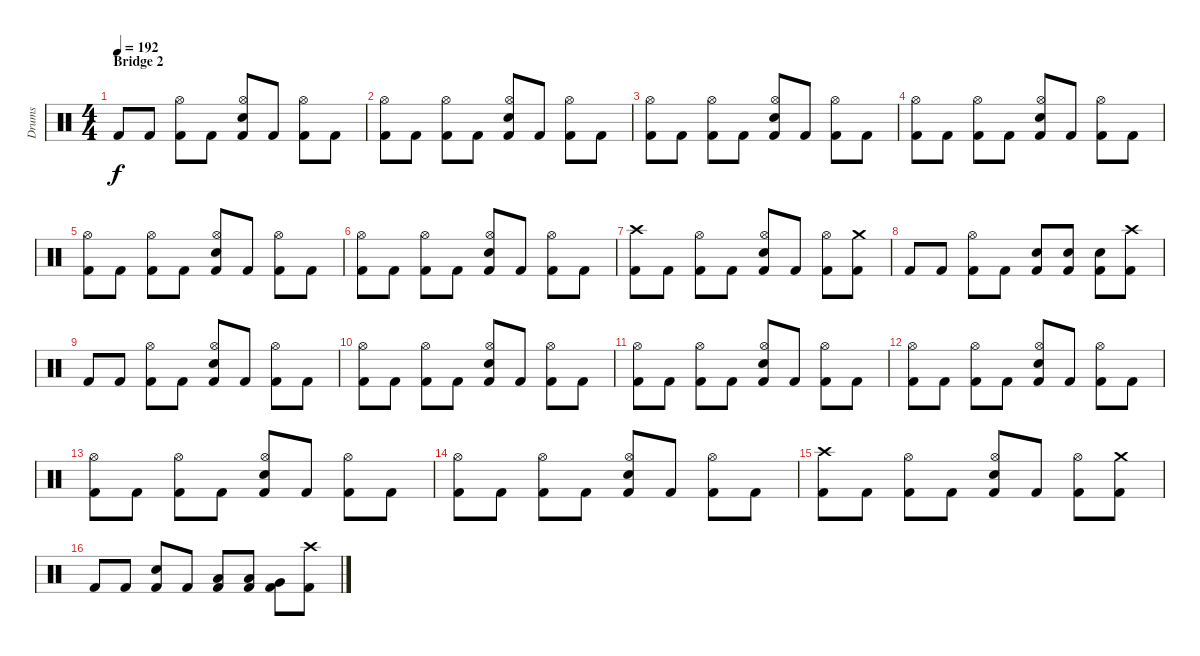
\track ("Drums" "Drums") {instrument percussion}
\staff {score}
\articulation defaults
\ts (4 4)
\section ("" "Bridge 2")
\tempo 192
\clef neutral
\ks c "Kick (hit) 2".8{dy f} "Kick (hit) 2".8
("Hi-Hat (open)" "Kick (hit) 2").8 "Kick (hit) 2".8 ("Hi-Hat (open)" "Snare (hit) 2" "Kick (hit) 2").8 "Kick (hit) 2".8 ("Hi-Hat (open)" "Kick (hit) 2").8 "Kick (hit) 2".8 |
("Hi-Hat (open)" "Kick (hit) 2").8 "Kick (hit) 2".8 ("Hi-Hat (open)" "Kick (hit) 2").8 "Kick (hit) 2".8 ("Hi-Hat (open)" "Snare (hit) 2" "Kick (hit) 2").8 "Kick (hit) 2".8 ("Hi-Hat (open)" "Kick (hit) 2").8 "Kick (hit) 2".8 |
("Hi-Hat (open)" "Kick (hit) 2").8 "Kick (hit) 2".8 ("Hi-Hat (open)" "Kick (hit) 2").8 "Kick (hit) 2".8 ("Hi-Hat (open)" "Snare (hit) 2" "Kick (hit) 2").8 "Kick (hit) 2".8 ("Hi-Hat (open)" "Kick (hit) 2").8 "Kick (hit) 2".8 |
("Hi-Hat (open)" "Kick (hit) 2").8 "Kick (hit) 2".8 ("Hi-Hat (open)" "Kick (hit) 2").8 "Kick (hit) 2".8 ("Hi-Hat (open)" "Snare (hit) 2" "Kick (hit) 2").8 "Kick (hit) 2".8 ("Hi-Hat (open)" "Kick (hit) 2").8 "Kick (hit) 2".8 |
("Hi-Hat (open)" "Kick (hit) 2").8 "Kick (hit) 2".8 ("Hi-Hat (open)" "Kick (hit) 2").8 "Kick (hit) 2".8 ("Hi-Hat (open)" "Snare (hit) 2" "Kick (hit) 2").8 "Kick (hit) 2".8 ("Hi-Hat (open)" "Kick (hit) 2").8 "Kick (hit) 2".8 |
("Hi-Hat (open)" "Kick (hit) 2").8 "Kick (hit) 2".8 ("Hi-Hat (open)" "Kick (hit) 2").8 "Kick (hit) 2".8 ("Hi-Hat (open)" "Snare (hit) 2" "Kick (hit) 2").8 "Kick (hit) 2".8 ("Hi-Hat (open)" "Kick (hit) 2").8 "Kick (hit) 2".8 |
("Crash high (hit)" "Kick (hit) 2").8 "Kick (hit) 2".8 ("Hi-Hat (open)" "Kick (hit) 2").8 "Kick (hit) 2".8 ("Hi-Hat (open)" "Snare (hit) 2" "Kick (hit) 2").8 "Kick (hit) 2".8 ("Hi-Hat (open)" "Kick (hit) 2").8 ("Crash medium (hit)" "Kick (hit) 2").8 |
"Kick (hit) 2".8 "Kick (hit) 2".8 ("Hi-Hat (open)" "Kick (hit) 2").8 "Kick (hit) 2".8 ("Snare (hit) 2" "Kick (hit) 2").8 ("Snare (hit) 2" "Kick (hit) 2").8 ("Snare (hit) 2" "Kick (hit) 2").8 ("Crash high (hit)" "Kick (hit) 2").8 |
"Kick (hit) 2".8 "Kick (hit) 2".8 ("Hi-Hat (open)" "Kick (hit) 2").8 "Kick (hit) 2".8 ("Hi-Hat (open)" "Snare (hit) 2" "Kick (hit) 2").8 "Kick (hit) 2".8 ("Hi-Hat (open)" "Kick (hit) 2").8 "Kick (hit) 2".8 |
("Hi-Hat (open)" "Kick (hit) 2").8 "Kick (hit) 2".8 ("Hi-Hat (open)" "Kick (hit) 2").8 "Kick (hit) 2".8 ("Hi-Hat (open)" "Snare (hit) 2" "Kick (hit) 2").8 "Kick (hit) 2".8 ("Hi-Hat (open)" "Kick (hit) 2").8 "Kick (hit) 2".8 |
("Hi-Hat (open)" "Kick (hit) 2").8 "Kick (hit) 2".8 ("Hi-Hat (open)" "Kick (hit) 2").8 "Kick (hit) 2".8 ("Hi-Hat (open)" "Snare (hit) 2" "Kick (hit) 2").8 "Kick (hit) 2".8 ("Hi-Hat (open)" "Kick (hit) 2").8 "Kick (hit) 2".8 |
("Hi-Hat (open)" "Kick (hit) 2").8 "Kick (hit) 2".8 ("Hi-Hat (open)" "Kick (hit) 2").8 "Kick (hit) 2".8 ("Hi-Hat (open)" "Snare (hit) 2" "Kick (hit) 2").8 "Kick (hit) 2".8 ("Hi-Hat (open)" "Kick (hit) 2").8 "Kick (hit) 2".8 |
("Hi-Hat (open)" "Kick (hit) 2").8 "Kick (hit) 2".8 ("Hi-Hat (open)" "Kick (hit) 2").8 "Kick (hit) 2".8 ("Hi-Hat (open)" "Snare (hit) 2" "Kick (hit) 2").8 "Kick (hit) 2".8 ("Hi-Hat (open)" "Kick (hit) 2").8 "Kick (hit) 2".8 |
("Hi-Hat (open)" "Kick (hit) 2").8 "Kick (hit) 2".8 ("Hi-Hat (open)" "Kick (hit) 2").8 "Kick (hit) 2".8 ("Hi-Hat (open)" "Snare (hit) 2" "Kick (hit) 2").8 "Kick (hit) 2".8 ("Hi-Hat (open)" "Kick (hit) 2").8 "Kick (hit) 2".8 |
("Crash high (hit)" "Kick (hit) 2").8 "Kick (hit) 2".8 ("Hi-Hat (open)" "Kick (hit) 2").8 "Kick (hit) 2".8 ("Hi-Hat (open)" "Snare (hit) 2" "Kick (hit) 2").8 "Kick (hit) 2".8 ("Hi-Hat (open)" "Kick (hit) 2").8 ("Crash medium (hit)" "Kick (hit) 2").8 |
"Kick (hit) 2".8 "Kick (hit) 2".8 ("Snare (hit) 2" "Kick (hit) 2").8 "Kick (hit) 2".8 ("Low Tom (hit)" "Kick (hit) 2").8 ("Low Tom (hit)" "Kick (hit) 2").8 ("Very Low Tom (hit)" "Kick (hit) 2").8 ("Crash high (hit)" "Kick (hit) 2").8
